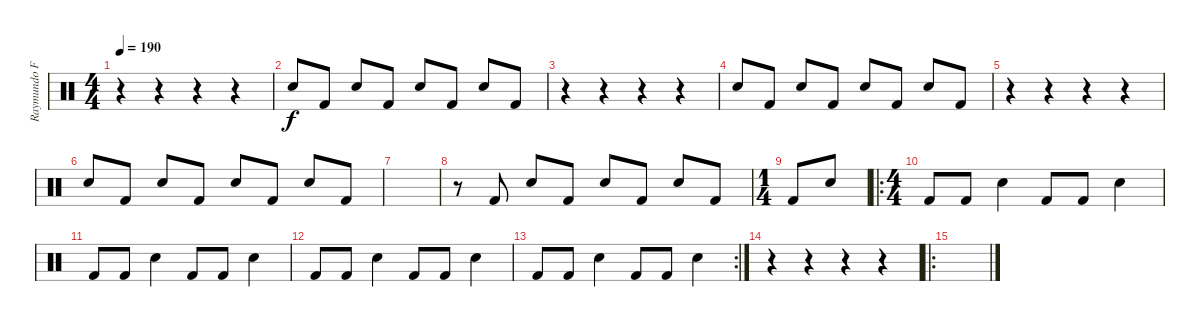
\track ("Raymundo Fajaro" "Raymundo F") {instrument percussion}
\staff {score}
\articulation defaults
\ts (4 4)
\tempo 190
\clef neutral
\ks c
r.4{dy f} r.4 r.4 r.4 |
"Electric Snare (hit)".8 "Kick (hit) 2".8 "Electric Snare (hit)".8 "Kick (hit) 2".8 "Electric Snare (hit)".8 "Kick (hit) 2".8 "Electric Snare (hit)".8 "Kick (hit) 2".8 |
r.4 r.4 r.4 r.4 |
"Electric Snare (hit)".8 "Kick (hit) 2".8 "Electric Snare (hit)".8 "Kick (hit) 2".8 "Electric Snare (hit)".8 "Kick (hit) 2".8 "Electric Snare (hit)".8 "Kick (hit) 2".8 |
r.4 r.4 r.4 r.4 |
"Electric Snare (hit)".8 "Kick (hit) 2".8 "Electric Snare (hit)".8 "Kick (hit) 2".8 "Electric Snare (hit)".8 "Kick (hit) 2".8 "Electric Snare (hit)".8 "Kick (hit) 2".8 |
|
r.8 "Kick (hit) 2".8 "Electric Snare (hit)".8 "Kick (hit) 2".8 "Electric Snare (hit)".8 "Kick (hit) 2".8 "Electric Snare (hit)".8 "Kick (hit) 2".8 |
\ts (1 4)
"Kick (hit) 2".8 "Electric Snare (hit)".8 |
\ro
\ts (4 4)
"Kick (hit) 2".8 "Kick (hit) 2".8 "Electric Snare (hit)".4 "Kick (hit) 2".8 "Kick (hit) 2".8 "Electric Snare (hit)".4 |
"Kick (hit) 2".8 "Kick (hit) 2".8 "Electric Snare (hit)".4 "Kick (hit) 2".8 "Kick (hit) 2".8 "Electric Snare (hit)".4 |
"Kick (hit) 2".8 "Kick (hit) 2".8 "Electric Snare (hit)".4 "Kick (hit) 2".8 "Kick (hit) 2".8 "Electric Snare (hit)".4 |
\rc 2 "Kick (hit) 2".8 "Kick (hit) 2".8 "Electric Snare (hit)".4 "Kick (hit) 2".8 "Kick (hit) 2".8 "Electric Snare (hit)".4
|
r.4 r.4 r.4 r.4 |
\ro
